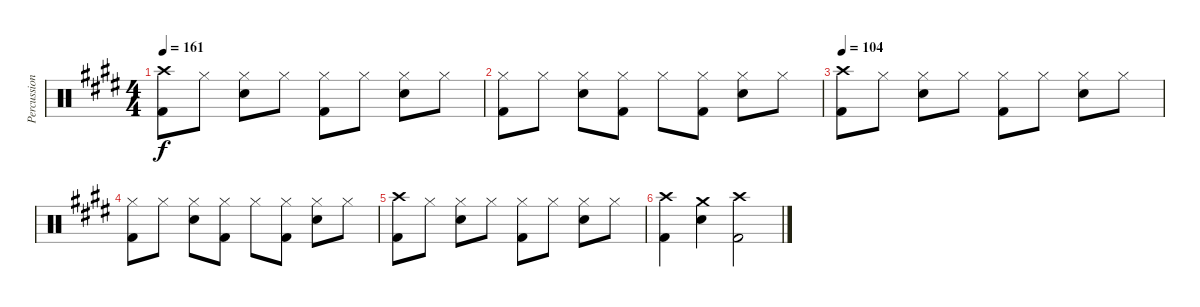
\track ("Percussion" "Percussion") {instrument percussion}
\staff {score}
\articulation defaults
\ts (4 4)
\tempo 161
\clef neutral
\ks e
("Crash high (hit)" "Kick (hit) 2").8{dy f} "Hi-Hat (closed)".8 ("Hi-Hat (closed)" "Snare (hit) 2").8 "Hi-Hat (closed)".8 ("Hi-Hat (closed)" "Kick (hit) 2").8 "Hi-Hat (closed)".8 ("Hi-Hat (closed)" "Snare (hit) 2").8 "Hi-Hat (closed)".8 |
("Hi-Hat (closed)" "Kick (hit) 2").8 "Hi-Hat (closed)".8 ("Hi-Hat (closed)" "Snare (hit) 2").8 ("Hi-Hat (closed)" "Kick (hit) 2").8 "Hi-Hat (closed)".8 ("Hi-Hat (closed)" "Kick (hit) 2").8 ("Hi-Hat (closed)" "Snare (hit) 2").8 "Hi-Hat (closed)".8 |
\tempo 104
("Crash high (hit)" "Kick (hit) 2").8 "Hi-Hat (closed)".8 ("Hi-Hat (closed)" "Snare (hit) 2").8 "Hi-Hat (closed)".8 ("Hi-Hat (closed)" "Kick (hit) 2").8 "Hi-Hat (closed)".8 ("Hi-Hat (closed)" "Snare (hit) 2").8 "Hi-Hat (closed)".8 |
("Hi-Hat (closed)" "Kick (hit) 2").8 "Hi-Hat (closed)".8 ("Hi-Hat (closed)" "Snare (hit) 2").8 ("Hi-Hat (closed)" "Kick (hit) 2").8 "Hi-Hat (closed)".8 ("Hi-Hat (closed)" "Kick (hit) 2").8 ("Hi-Hat (closed)" "Snare (hit) 2").8 "Hi-Hat (closed)".8 |
("Crash high (hit)" "Kick (hit) 2").8 "Hi-Hat (closed)".8 ("Hi-Hat (closed)" "Snare (hit) 2").8 "Hi-Hat (closed)".8 ("Hi-Hat (closed)" "Kick (hit) 2").8 "Hi-Hat (closed)".8 ("Hi-Hat (closed)" "Snare (hit) 2").8 "Hi-Hat (closed)".8 |
("Crash high (hit)" "Kick (hit) 2").4 ("Crash medium (hit)" "Snare (hit) 2").4 ("Crash high (hit)" "Kick (hit) 2").2
